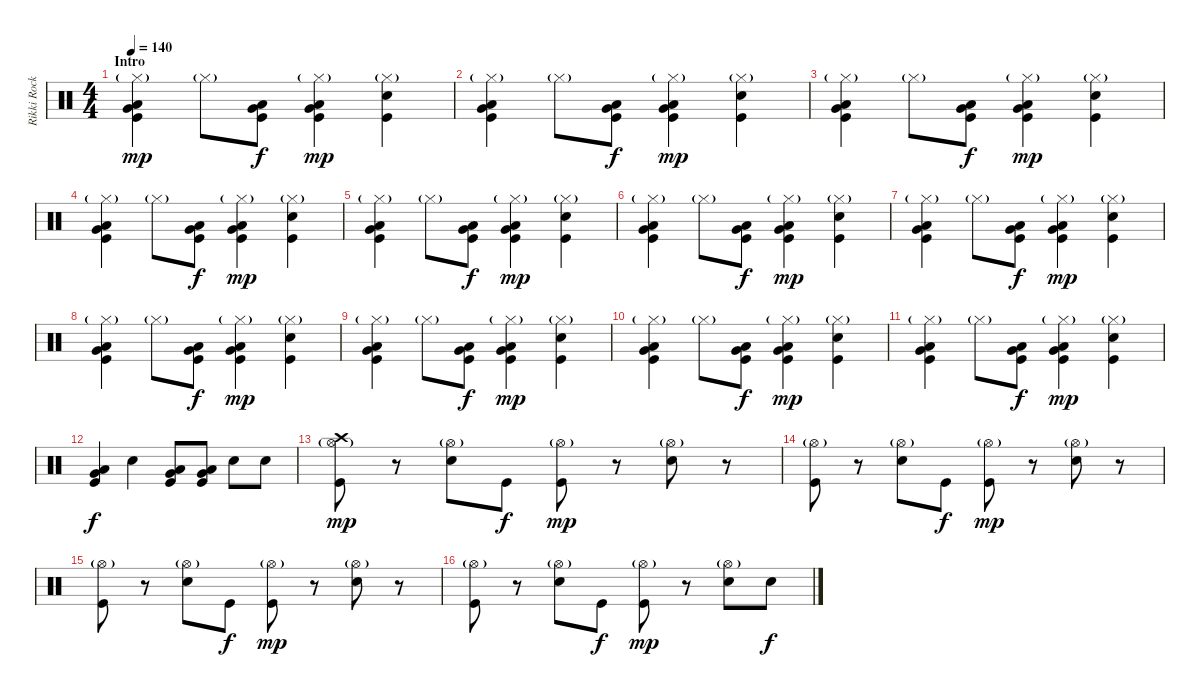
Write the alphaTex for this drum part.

\track ("Rikki Rockett - Drums" "Rikki Rock") {instrument percussion}
\staff {score}
\articulation defaults
\ts (4 4)
\section ("" "Intro")
\tempo 140
\clef neutral
\ks c
("Hi-Hat (closed)"{g} "Low Tom (hit)" "Very Low Tom (hit)" "Kick (hit)").4{dy mp} "Hi-Hat (closed)"{g}.8 ("Low Tom (hit)" "Very Low Tom (hit)" "Kick (hit)").8{dy f} ("Hi-Hat (closed)"{g} "Low Tom (hit)" "Very Low Tom (hit)" "Kick (hit)").4{dy mp} ("Hi-Hat (closed)"{g} "Snare (hit) 2" "Kick (hit)").4 |
("Hi-Hat (closed)"{g} "Low Tom (hit)" "Very Low Tom (hit)" "Kick (hit)").4 "Hi-Hat (closed)"{g}.8 ("Low Tom (hit)" "Very Low Tom (hit)" "Kick (hit)").8{dy f} ("Hi-Hat (closed)"{g} "Low Tom (hit)" "Very Low Tom (hit)" "Kick (hit)").4{dy mp} ("Hi-Hat (closed)"{g} "Snare (hit) 2" "Kick (hit)").4 |
("Hi-Hat (closed)"{g} "Low Tom (hit)" "Very Low Tom (hit)" "Kick (hit)").4 "Hi-Hat (closed)"{g}.8 ("Low Tom (hit)" "Very Low Tom (hit)" "Kick (hit)").8{dy f} ("Hi-Hat (closed)"{g} "Low Tom (hit)" "Very Low Tom (hit)" "Kick (hit)").4{dy mp} ("Hi-Hat (closed)"{g} "Snare (hit) 2" "Kick (hit)").4 |
("Hi-Hat (closed)"{g} "Low Tom (hit)" "Very Low Tom (hit)" "Kick (hit)").4 "Hi-Hat (closed)"{g}.8 ("Low Tom (hit)" "Very Low Tom (hit)" "Kick (hit)").8{dy f} ("Hi-Hat (closed)"{g} "Low Tom (hit)" "Very Low Tom (hit)" "Kick (hit)").4{dy mp} ("Hi-Hat (closed)"{g} "Snare (hit) 2" "Kick (hit)").4 |
("Hi-Hat (closed)"{g} "Low Tom (hit)" "Very Low Tom (hit)" "Kick (hit)").4 "Hi-Hat (closed)"{g}.8 ("Low Tom (hit)" "Very Low Tom (hit)" "Kick (hit)").8{dy f} ("Hi-Hat (closed)"{g} "Low Tom (hit)" "Very Low Tom (hit)" "Kick (hit)").4{dy mp} ("Hi-Hat (closed)"{g} "Snare (hit) 2" "Kick (hit)").4 |
("Hi-Hat (closed)"{g} "Low Tom (hit)" "Very Low Tom (hit)" "Kick (hit)").4 "Hi-Hat (closed)"{g}.8 ("Low Tom (hit)" "Very Low Tom (hit)" "Kick (hit)").8{dy f} ("Hi-Hat (closed)"{g} "Low Tom (hit)" "Very Low Tom (hit)" "Kick (hit)").4{dy mp} ("Hi-Hat (closed)"{g} "Snare (hit) 2" "Kick (hit)").4 |
("Hi-Hat (closed)"{g} "Low Tom (hit)" "Very Low Tom (hit)" "Kick (hit)").4 "Hi-Hat (closed)"{g}.8 ("Low Tom (hit)" "Very Low Tom (hit)" "Kick (hit)").8{dy f} ("Hi-Hat (closed)"{g} "Low Tom (hit)" "Very Low Tom (hit)" "Kick (hit)").4{dy mp} ("Hi-Hat (closed)"{g} "Snare (hit) 2" "Kick (hit)").4 |
("Hi-Hat (closed)"{g} "Low Tom (hit)" "Very Low Tom (hit)" "Kick (hit)").4 "Hi-Hat (closed)"{g}.8 ("Low Tom (hit)" "Very Low Tom (hit)" "Kick (hit)").8{dy f} ("Hi-Hat (closed)"{g} "Low Tom (hit)" "Very Low Tom (hit)" "Kick (hit)").4{dy mp} ("Hi-Hat (closed)"{g} "Snare (hit) 2" "Kick (hit)").4 |
("Hi-Hat (closed)"{g} "Low Tom (hit)" "Very Low Tom (hit)" "Kick (hit)").4 "Hi-Hat (closed)"{g}.8 ("Low Tom (hit)" "Very Low Tom (hit)" "Kick (hit)").8{dy f} ("Hi-Hat (closed)"{g} "Low Tom (hit)" "Very Low Tom (hit)" "Kick (hit)").4{dy mp} ("Hi-Hat (closed)"{g} "Snare (hit) 2" "Kick (hit)").4 |
("Hi-Hat (closed)"{g} "Low Tom (hit)" "Very Low Tom (hit)" "Kick (hit)").4 "Hi-Hat (closed)"{g}.8 ("Low Tom (hit)" "Very Low Tom (hit)" "Kick (hit)").8{dy f} ("Hi-Hat (closed)"{g} "Low Tom (hit)" "Very Low Tom (hit)" "Kick (hit)").4{dy mp} ("Hi-Hat (closed)"{g} "Snare (hit) 2" "Kick (hit)").4 |
("Hi-Hat (closed)"{g} "Low Tom (hit)" "Very Low Tom (hit)" "Kick (hit)").4 "Hi-Hat (closed)"{g}.8 ("Low Tom (hit)" "Very Low Tom (hit)" "Kick (hit)").8{dy f} ("Hi-Hat (closed)"{g} "Low Tom (hit)" "Very Low Tom (hit)" "Kick (hit)").4{dy mp} ("Hi-Hat (closed)"{g} "Snare (hit) 2" "Kick (hit)").4 |
("Low Floor Tom (hit)" "Very Low Tom (hit)" "Kick (hit)").4{dy f} "Snare (hit) 2".4 ("Low Floor Tom (hit)" "Very Low Tom (hit)" "Kick (hit)").8 ("Low Floor Tom (hit)" "Very Low Tom (hit)" "Kick (hit)").8 "Snare (hit) 2".8 "Snare (hit) 2".8 |
("Hi-Hat (open)"{g} "Crash high (hit)" "Kick (hit)").8{dy mp} r.8 ("Hi-Hat (open)"{g} "Snare (hit) 2").8 "Kick (hit)".8{dy f} ("Hi-Hat (open)"{g} "Kick (hit)").8{dy mp} r.8 ("Hi-Hat (open)"{g} "Snare (hit) 2").8 r.8 |
("Hi-Hat (open)"{g} "Kick (hit)").8 r.8 ("Hi-Hat (open)"{g} "Snare (hit) 2").8 "Kick (hit)".8{dy f} ("Hi-Hat (open)"{g} "Kick (hit)").8{dy mp} r.8 ("Hi-Hat (open)"{g} "Snare (hit) 2").8 r.8 |
("Hi-Hat (open)"{g} "Kick (hit)").8 r.8 ("Hi-Hat (open)"{g} "Snare (hit) 2").8 "Kick (hit)".8{dy f} ("Hi-Hat (open)"{g} "Kick (hit)").8{dy mp} r.8 ("Hi-Hat (open)"{g} "Snare (hit) 2").8 r.8 |
("Hi-Hat (open)"{g} "Kick (hit)").8 r.8 ("Hi-Hat (open)"{g} "Snare (hit) 2").8 "Kick (hit)".8{dy f} ("Hi-Hat (open)"{g} "Kick (hit)").8{dy mp} r.8 ("Hi-Hat (open)"{g} "Snare (hit) 2").8 "Snare (hit) 2".8{dy f}
